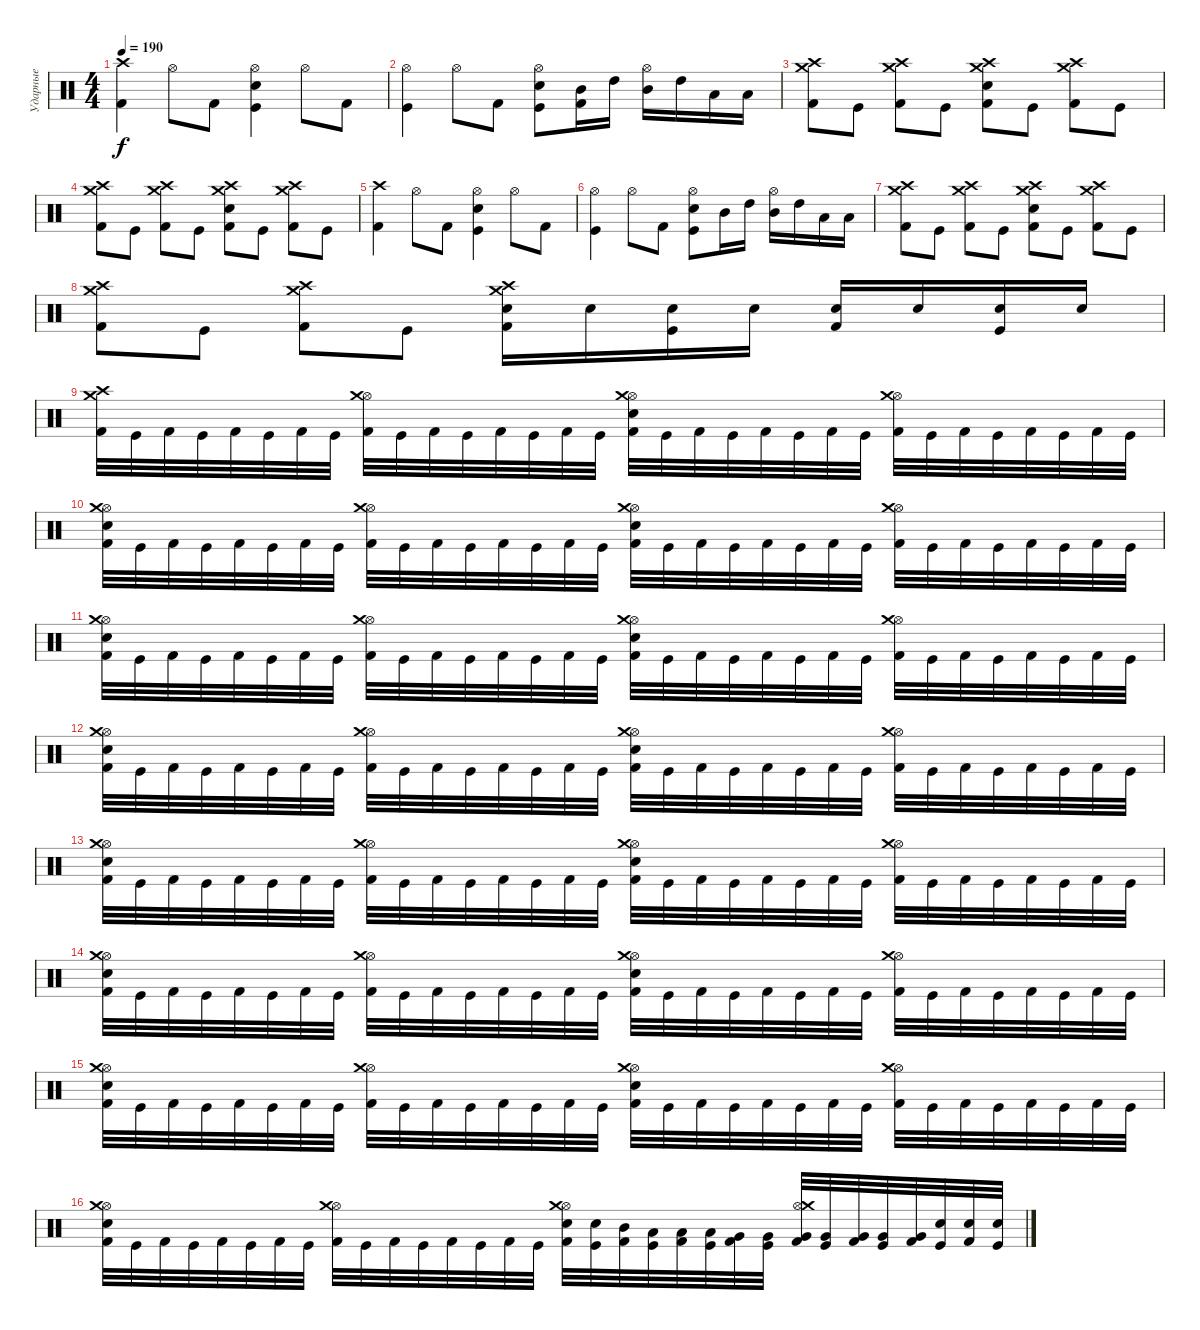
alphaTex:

\track ("Ударные" "Ударные") {instrument percussion}
\staff {score}
\articulation defaults
\ts (4 4)
\tempo 190
\clef neutral
\ks c
("Crash high (hit)" "Kick (hit) 2").4{dy f} "Hi-Hat (open)".8 "Kick (hit) 2".8 ("Hi-Hat (open)" "Electric Snare (hit)" "Kick (hit)").4 "Hi-Hat (open)".8 "Kick (hit) 2".8 |
("Hi-Hat (open)" "Kick (hit)").4 "Hi-Hat (open)".8 "Kick (hit) 2".8 ("Hi-Hat (open)" "Electric Snare (hit)" "Kick (hit)").8 ("Mid Tom (hit)" "Kick (hit) 2").16 "High Tom (hit)".16 ("Hi-Hat (open)" "Mid Tom (hit)").16 "High Tom (hit)".16 "Low Tom (hit)".16 "Low Tom (hit)".16 |
("Crash high (hit)" "Crash medium (hit)" "Kick (hit) 2").8 "Kick (hit)".8 ("Crash high (hit)" "Crash medium (hit)" "Kick (hit) 2").8 "Kick (hit)".8 ("Crash high (hit)" "Crash medium (hit)" "Electric Snare (hit)" "Kick (hit) 2").8 "Kick (hit)".8 ("Crash high (hit)" "Crash medium (hit)" "Kick (hit) 2").8 "Kick (hit)".8 |
("Crash high (hit)" "Crash medium (hit)" "Kick (hit) 2").8 "Kick (hit)".8 ("Crash high (hit)" "Crash medium (hit)" "Kick (hit) 2").8 "Kick (hit)".8 ("Crash high (hit)" "Crash medium (hit)" "Electric Snare (hit)" "Kick (hit) 2").8 "Kick (hit)".8 ("Crash high (hit)" "Crash medium (hit)" "Kick (hit) 2").8 "Kick (hit)".8 |
("Crash high (hit)" "Kick (hit) 2").4 "Hi-Hat (open)".8 "Kick (hit) 2".8 ("Hi-Hat (open)" "Electric Snare (hit)" "Kick (hit)").4 "Hi-Hat (open)".8 "Kick (hit) 2".8 |
("Hi-Hat (open)" "Kick (hit)").4 "Hi-Hat (open)".8 "Kick (hit) 2".8 ("Hi-Hat (open)" "Electric Snare (hit)" "Kick (hit)").8 "Mid Tom (hit)".16 "High Tom (hit)".16 ("Hi-Hat (open)" "Mid Tom (hit)").16 "High Tom (hit)".16 "Low Tom (hit)".16 "Low Tom (hit)".16 |
("Crash high (hit)" "Crash medium (hit)" "Kick (hit) 2").8 "Kick (hit)".8 ("Crash high (hit)" "Crash medium (hit)" "Kick (hit) 2").8 "Kick (hit)".8 ("Crash high (hit)" "Crash medium (hit)" "Electric Snare (hit)" "Kick (hit) 2").8 "Kick (hit)".8 ("Crash high (hit)" "Crash medium (hit)" "Kick (hit) 2").8 "Kick (hit)".8 |
("Crash high (hit)" "Crash medium (hit)" "Kick (hit) 2").8 "Kick (hit)".8 ("Crash high (hit)" "Crash medium (hit)" "Kick (hit) 2").8 "Kick (hit)".8 ("Crash high (hit)" "Crash medium (hit)" "Electric Snare (hit)" "Kick (hit) 2").16 "Electric Snare (hit)".16 ("Electric Snare (hit)" "Kick (hit)").16 "Electric Snare (hit)".16 ("Electric Snare (hit)" "Kick (hit) 2").16 "Electric Snare (hit)".16 ("Electric Snare (hit)" "Kick (hit)").16 "Electric Snare (hit)".16 |
("Crash high (hit)" "Crash medium (hit)" "Kick (hit) 2").32 "Kick (hit)".32 "Kick (hit) 2".32 "Kick (hit)".32 "Kick (hit) 2".32 "Kick (hit)".32 "Kick (hit) 2".32 "Kick (hit)".32 ("Hi-Hat (open)" "Crash medium (hit)" "Kick (hit) 2").32 "Kick (hit)".32 "Kick (hit) 2".32 "Kick (hit)".32 "Kick (hit) 2".32 "Kick (hit)".32 "Kick (hit) 2".32 "Kick (hit)".32 ("Hi-Hat (open)" "Crash medium (hit)" "Electric Snare (hit)" "Kick (hit) 2").32 "Kick (hit)".32 "Kick (hit) 2".32 "Kick (hit)".32 "Kick (hit) 2".32 "Kick (hit)".32 "Kick (hit) 2".32 "Kick (hit)".32 ("Hi-Hat (open)" "Crash medium (hit)" "Kick (hit) 2").32 "Kick (hit)".32 "Kick (hit) 2".32 "Kick (hit)".32 "Kick (hit) 2".32 "Kick (hit)".32 "Kick (hit) 2".32 "Kick (hit)".32 |
("Hi-Hat (open)" "Crash medium (hit)" "Electric Snare (hit)" "Kick (hit) 2").32 "Kick (hit)".32 "Kick (hit) 2".32 "Kick (hit)".32 "Kick (hit) 2".32 "Kick (hit)".32 "Kick (hit) 2".32 "Kick (hit)".32 ("Hi-Hat (open)" "Crash medium (hit)" "Kick (hit) 2").32 "Kick (hit)".32 "Kick (hit) 2".32 "Kick (hit)".32 "Kick (hit) 2".32 "Kick (hit)".32 "Kick (hit) 2".32 "Kick (hit)".32 ("Hi-Hat (open)" "Crash medium (hit)" "Electric Snare (hit)" "Kick (hit) 2").32 "Kick (hit)".32 "Kick (hit) 2".32 "Kick (hit)".32 "Kick (hit) 2".32 "Kick (hit)".32 "Kick (hit) 2".32 "Kick (hit)".32 ("Hi-Hat (open)" "Crash medium (hit)" "Kick (hit) 2").32 "Kick (hit)".32 "Kick (hit) 2".32 "Kick (hit)".32 "Kick (hit) 2".32 "Kick (hit)".32 "Kick (hit) 2".32 "Kick (hit)".32 |
("Hi-Hat (open)" "Crash medium (hit)" "Electric Snare (hit)" "Kick (hit) 2").32 "Kick (hit)".32 "Kick (hit) 2".32 "Kick (hit)".32 "Kick (hit) 2".32 "Kick (hit)".32 "Kick (hit) 2".32 "Kick (hit)".32 ("Hi-Hat (open)" "Crash medium (hit)" "Kick (hit) 2").32 "Kick (hit)".32 "Kick (hit) 2".32 "Kick (hit)".32 "Kick (hit) 2".32 "Kick (hit)".32 "Kick (hit) 2".32 "Kick (hit)".32 ("Hi-Hat (open)" "Crash medium (hit)" "Electric Snare (hit)" "Kick (hit) 2").32 "Kick (hit)".32 "Kick (hit) 2".32 "Kick (hit)".32 "Kick (hit) 2".32 "Kick (hit)".32 "Kick (hit) 2".32 "Kick (hit)".32 ("Hi-Hat (open)" "Crash medium (hit)" "Kick (hit) 2").32 "Kick (hit)".32 "Kick (hit) 2".32 "Kick (hit)".32 "Kick (hit) 2".32 "Kick (hit)".32 "Kick (hit) 2".32 "Kick (hit)".32 |
("Hi-Hat (open)" "Crash medium (hit)" "Electric Snare (hit)" "Kick (hit) 2").32 "Kick (hit)".32 "Kick (hit) 2".32 "Kick (hit)".32 "Kick (hit) 2".32 "Kick (hit)".32 "Kick (hit) 2".32 "Kick (hit)".32 ("Hi-Hat (open)" "Crash medium (hit)" "Kick (hit) 2").32 "Kick (hit)".32 "Kick (hit) 2".32 "Kick (hit)".32 "Kick (hit) 2".32 "Kick (hit)".32 "Kick (hit) 2".32 "Kick (hit)".32 ("Hi-Hat (open)" "Crash medium (hit)" "Electric Snare (hit)" "Kick (hit) 2").32 "Kick (hit)".32 "Kick (hit) 2".32 "Kick (hit)".32 "Kick (hit) 2".32 "Kick (hit)".32 "Kick (hit) 2".32 "Kick (hit)".32 ("Hi-Hat (open)" "Crash medium (hit)" "Kick (hit) 2").32 "Kick (hit)".32 "Kick (hit) 2".32 "Kick (hit)".32 "Kick (hit) 2".32 "Kick (hit)".32 "Kick (hit) 2".32 "Kick (hit)".32 |
("Hi-Hat (open)" "Crash medium (hit)" "Electric Snare (hit)" "Kick (hit) 2").32 "Kick (hit)".32 "Kick (hit) 2".32 "Kick (hit)".32 "Kick (hit) 2".32 "Kick (hit)".32 "Kick (hit) 2".32 "Kick (hit)".32 ("Hi-Hat (open)" "Crash medium (hit)" "Kick (hit) 2").32 "Kick (hit)".32 "Kick (hit) 2".32 "Kick (hit)".32 "Kick (hit) 2".32 "Kick (hit)".32 "Kick (hit) 2".32 "Kick (hit)".32 ("Hi-Hat (open)" "Crash medium (hit)" "Electric Snare (hit)" "Kick (hit) 2").32 "Kick (hit)".32 "Kick (hit) 2".32 "Kick (hit)".32 "Kick (hit) 2".32 "Kick (hit)".32 "Kick (hit) 2".32 "Kick (hit)".32 ("Hi-Hat (open)" "Crash medium (hit)" "Kick (hit) 2").32 "Kick (hit)".32 "Kick (hit) 2".32 "Kick (hit)".32 "Kick (hit) 2".32 "Kick (hit)".32 "Kick (hit) 2".32 "Kick (hit)".32 |
("Hi-Hat (open)" "Crash medium (hit)" "Electric Snare (hit)" "Kick (hit) 2").32 "Kick (hit)".32 "Kick (hit) 2".32 "Kick (hit)".32 "Kick (hit) 2".32 "Kick (hit)".32 "Kick (hit) 2".32 "Kick (hit)".32 ("Hi-Hat (open)" "Crash medium (hit)" "Kick (hit) 2").32 "Kick (hit)".32 "Kick (hit) 2".32 "Kick (hit)".32 "Kick (hit) 2".32 "Kick (hit)".32 "Kick (hit) 2".32 "Kick (hit)".32 ("Hi-Hat (open)" "Crash medium (hit)" "Electric Snare (hit)" "Kick (hit) 2").32 "Kick (hit)".32 "Kick (hit) 2".32 "Kick (hit)".32 "Kick (hit) 2".32 "Kick (hit)".32 "Kick (hit) 2".32 "Kick (hit)".32 ("Hi-Hat (open)" "Crash medium (hit)" "Kick (hit) 2").32 "Kick (hit)".32 "Kick (hit) 2".32 "Kick (hit)".32 "Kick (hit) 2".32 "Kick (hit)".32 "Kick (hit) 2".32 "Kick (hit)".32 |
("Hi-Hat (open)" "Crash medium (hit)" "Electric Snare (hit)" "Kick (hit) 2").32 "Kick (hit)".32 "Kick (hit) 2".32 "Kick (hit)".32 "Kick (hit) 2".32 "Kick (hit)".32 "Kick (hit) 2".32 "Kick (hit)".32 ("Hi-Hat (open)" "Crash medium (hit)" "Kick (hit) 2").32 "Kick (hit)".32 "Kick (hit) 2".32 "Kick (hit)".32 "Kick (hit) 2".32 "Kick (hit)".32 "Kick (hit) 2".32 "Kick (hit)".32 ("Hi-Hat (open)" "Crash medium (hit)" "Electric Snare (hit)" "Kick (hit) 2").32 "Kick (hit)".32 "Kick (hit) 2".32 "Kick (hit)".32 "Kick (hit) 2".32 "Kick (hit)".32 "Kick (hit) 2".32 "Kick (hit)".32 ("Hi-Hat (open)" "Crash medium (hit)" "Kick (hit) 2").32 "Kick (hit)".32 "Kick (hit) 2".32 "Kick (hit)".32 "Kick (hit) 2".32 "Kick (hit)".32 "Kick (hit) 2".32 "Kick (hit)".32 |
("Hi-Hat (open)" "Crash medium (hit)" "Electric Snare (hit)" "Kick (hit) 2").32 "Kick (hit)".32 "Kick (hit) 2".32 "Kick (hit)".32 "Kick (hit) 2".32 "Kick (hit)".32 "Kick (hit) 2".32 "Kick (hit)".32 ("Hi-Hat (open)" "Crash medium (hit)" "Kick (hit) 2").32 "Kick (hit)".32 "Kick (hit) 2".32 "Kick (hit)".32 "Kick (hit) 2".32 "Kick (hit)".32 "Kick (hit) 2".32 "Kick (hit)".32 ("Hi-Hat (open)" "Crash medium (hit)" "Electric Snare (hit)" "Kick (hit) 2").32 ("Electric Snare (hit)" "Kick (hit)").32 ("Mid Tom (hit)" "Kick (hit) 2").32 ("Low Tom (hit)" "Kick (hit)").32 ("Low Tom (hit)" "Kick (hit) 2").32 ("Low Tom (hit)" "Kick (hit)").32 ("Very Low Tom (hit)" "Kick (hit) 2").32 ("Very Low Tom (hit)" "Kick (hit)").32 ("Hi-Hat (open)" "Crash medium (hit)" "Very Low Tom (hit)" "Kick (hit) 2").32 ("Very Low Tom (hit)" "Kick (hit)").32 ("Very Low Tom (hit)" "Kick (hit) 2").32 ("Very Low Tom (hit)" "Kick (hit)").32 ("Very Low Tom (hit)" "Kick (hit) 2").32 ("Electric Snare (hit)" "Kick (hit)").32 ("Electric Snare (hit)" "Kick (hit) 2").32 ("Electric Snare (hit)" "Kick (hit)").32
